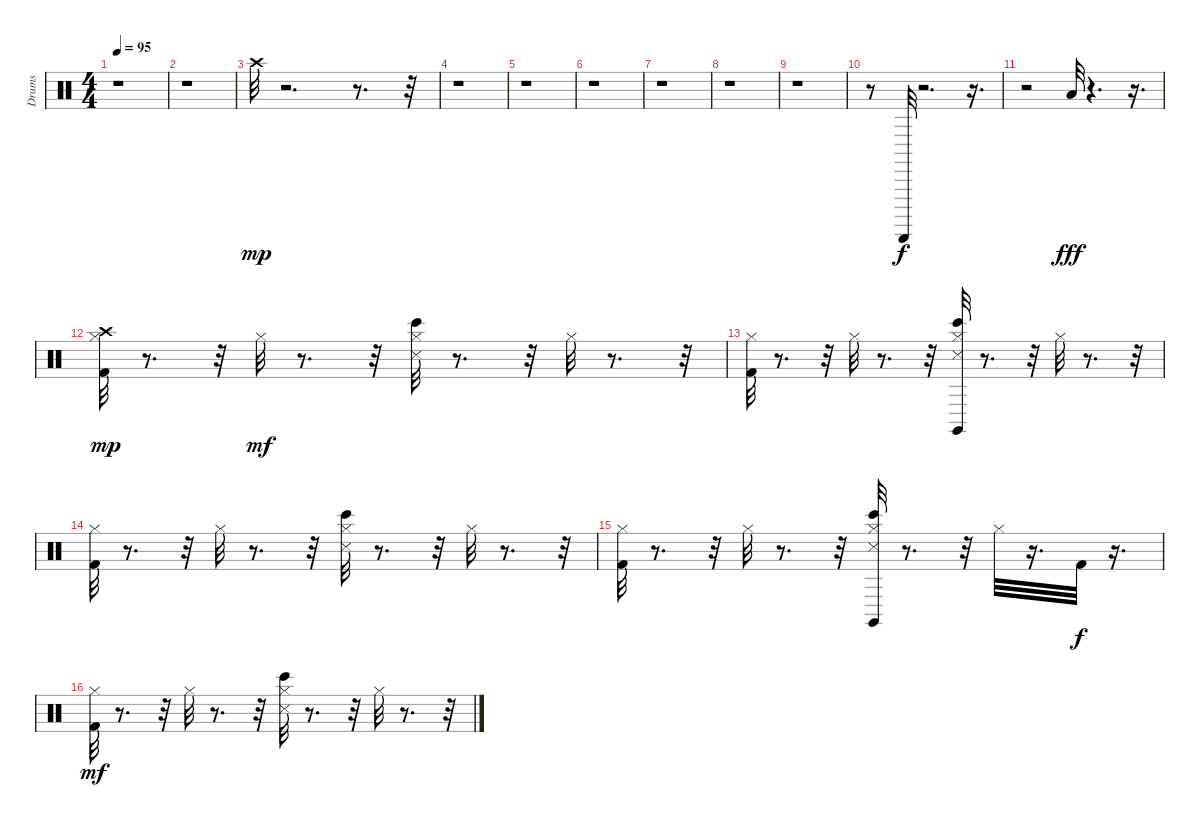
\track ("Drums" "Drums") {instrument percussion}
\staff {score}
\articulation defaults
\ts (4 4)
\tempo 95
\clef neutral
\ks c
r.1{dy mp} |
r.1 |
"Crash high (hit)".32 r.2{d} r.8{d} r.32 |
r.1 |
r.1 |
r.1 |
r.1 |
r.1 |
r.1 |
r.8 "Guiro (scrap-return)".32{dy f} r.2{d} r.16{d} |
r.2 "Low Tom (hit)".32{dy fff} r.4{d} r.16{d} |
("Hi-Hat (closed)" "Kick (hit) 2" "Crash high (hit)").32{dy mp} r.8{d} r.32 "Hi-Hat (closed)".32{dy mf} r.8{d} r.32 ("Bongo High (hit)" "Snare (side stick) 3" "Hi-Hat (closed)").32 r.8{d} r.32 "Hi-Hat (closed)".32 r.8{d} r.32 |
("Hi-Hat (closed)" "Kick (hit) 2").32 r.8{d} r.32 "Hi-Hat (closed)".32 r.8{d} r.32 ("Claves (hit)" "Bongo High (hit)" "Snare (side stick) 3" "Hi-Hat (closed)").32 r.8{d} r.32 "Hi-Hat (closed)".32 r.8{d} r.32 |
("Hi-Hat (closed)" "Kick (hit) 2").32 r.8{d} r.32 "Hi-Hat (closed)".32 r.8{d} r.32 ("Bongo High (hit)" "Snare (side stick) 3" "Hi-Hat (closed)").32 r.8{d} r.32 "Hi-Hat (closed)".32 r.8{d} r.32 |
("Hi-Hat (closed)" "Kick (hit) 2").32 r.8{d} r.32 "Hi-Hat (closed)".32 r.8{d} r.32 ("Claves (hit)" "Bongo High (hit)" "Snare (side stick) 3" "Hi-Hat (closed)").32 r.8{d} r.32 "Hi-Hat (closed)".32 r.16{d} "Kick (hit) 2".32{dy f} r.16{d} |
("Hi-Hat (closed)" "Kick (hit) 2").32{dy mf} r.8{d} r.32 "Hi-Hat (closed)".32 r.8{d} r.32 ("Bongo High (hit)" "Snare (side stick) 3" "Hi-Hat (closed)").32 r.8{d} r.32 "Hi-Hat (closed)".32 r.8{d} r.32
